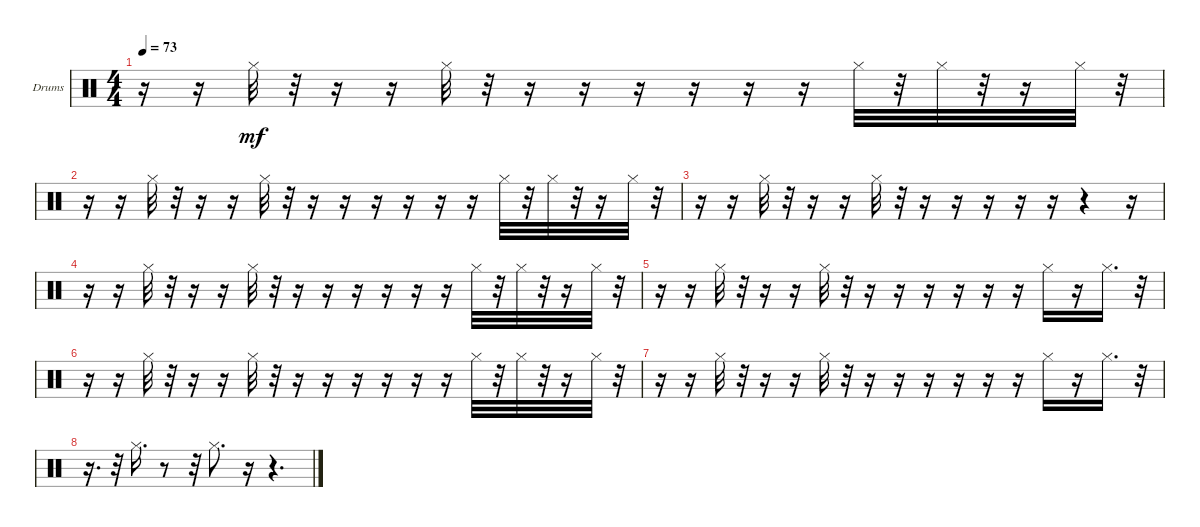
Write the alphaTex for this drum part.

\bracketExtendMode groupsimilarinstruments
\firstSystemTrackNameOrientation horizontal
\otherSystemsTrackNameOrientation horizontal
\track ("hi hat" "Drums") {instrument percussion}
\staff {score}
\articulation defaults
\ts (4 4)
\tempo 73
\clef neutral
\ks c
r.16{dy mf} r.16 "Hi-Hat (closed)".32 r.32 r.16 r.16 "Hi-Hat (closed)".32 r.32 r.16 r.16 r.16 r.16 r.16 r.16 "Hi-Hat (closed)".32 r.32 "Hi-Hat (closed)".32 r.32 r.16 "Hi-Hat (closed)".32 r.32 |
r.16 r.16 "Hi-Hat (closed)".32 r.32 r.16 r.16 "Hi-Hat (closed)".32 r.32 r.16 r.16 r.16 r.16 r.16 r.16 "Hi-Hat (closed)".32 r.32 "Hi-Hat (closed)".32 r.32 r.16 "Hi-Hat (closed)".32 r.32 |
r.16 r.16 "Hi-Hat (closed)".32 r.32 r.16 r.16 "Hi-Hat (closed)".32 r.32 r.16 r.16 r.16 r.16 r.16 r.4 r.16 |
r.16 r.16 "Hi-Hat (closed)".32 r.32 r.16 r.16 "Hi-Hat (closed)".32 r.32 r.16 r.16 r.16 r.16 r.16 r.16 "Hi-Hat (closed)".32 r.32 "Hi-Hat (closed)".32 r.32 r.16 "Hi-Hat (closed)".32 r.32 |
r.16 r.16 "Hi-Hat (closed)".32 r.32 r.16 r.16 "Hi-Hat (closed)".32 r.32 r.16 r.16 r.16 r.16 r.16 r.16 "Hi-Hat (closed)".16 r.16 "Hi-Hat (closed)".16{d} r.32 |
r.16 r.16 "Hi-Hat (closed)".32 r.32 r.16 r.16 "Hi-Hat (closed)".32 r.32 r.16 r.16 r.16 r.16 r.16 r.16 "Hi-Hat (closed)".32 r.32 "Hi-Hat (closed)".32 r.32 r.16 "Hi-Hat (closed)".32 r.32 |
r.16 r.16 "Hi-Hat (closed)".32 r.32 r.16 r.16 "Hi-Hat (closed)".32 r.32 r.16 r.16 r.16 r.16 r.16 r.16 "Hi-Hat (closed)".16 r.16 "Hi-Hat (closed)".16{d} r.32 |
r.16{d} r.32 "Hi-Hat (closed)".16{d} r.8 r.32 "Hi-Hat (closed)".8{d} r.16 r.4{d}
